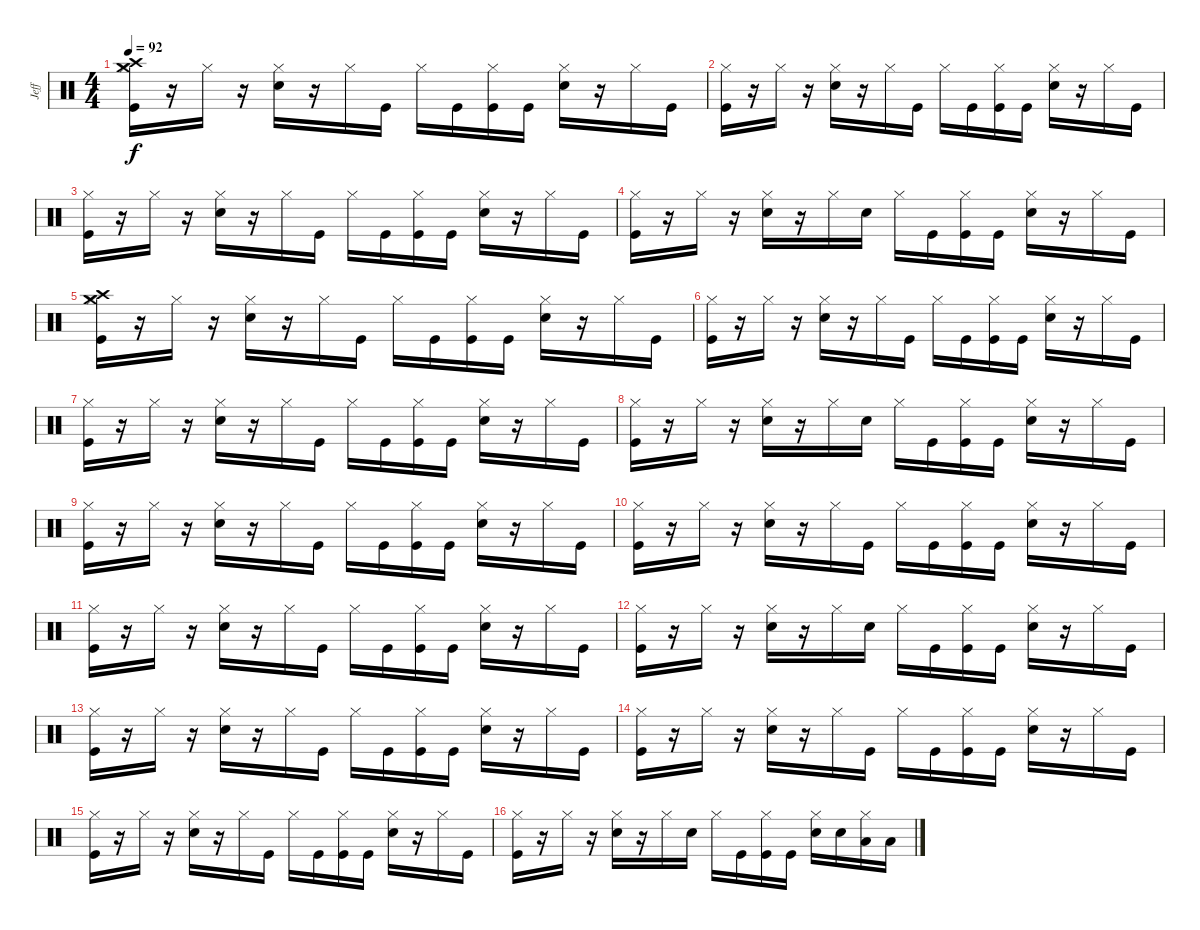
\track ("Jeff" "Jeff") {instrument percussion}
\staff {score}
\articulation defaults
\ts (4 4)
\tempo 92
\clef neutral
\ks c
("Crash medium (hit)" "Hi-Hat (closed)" "Crash high (hit)" "Kick (hit)").16{dy f} r.16 "Hi-Hat (closed)".16 r.16 ("Electric Snare (hit)" "Hi-Hat (closed)").16 r.16 "Hi-Hat (closed)".16 "Kick (hit)".16 "Hi-Hat (closed)".16 "Kick (hit)".16 ("Hi-Hat (closed)" "Kick (hit)").16 "Kick (hit)".16 ("Electric Snare (hit)" "Hi-Hat (closed)").16 r.16 "Hi-Hat (closed)".16 "Kick (hit)".16 |
("Hi-Hat (closed)" "Kick (hit)").16 r.16 "Hi-Hat (closed)".16 r.16 ("Electric Snare (hit)" "Hi-Hat (closed)").16 r.16 "Hi-Hat (closed)".16 "Kick (hit)".16 "Hi-Hat (closed)".16 "Kick (hit)".16 ("Hi-Hat (closed)" "Kick (hit)").16 "Kick (hit)".16 ("Electric Snare (hit)" "Hi-Hat (closed)").16 r.16 "Hi-Hat (closed)".16 "Kick (hit)".16 |
("Hi-Hat (closed)" "Kick (hit)").16 r.16 "Hi-Hat (closed)".16 r.16 ("Electric Snare (hit)" "Hi-Hat (closed)").16 r.16 "Hi-Hat (closed)".16 "Kick (hit)".16 "Hi-Hat (closed)".16 "Kick (hit)".16 ("Hi-Hat (closed)" "Kick (hit)").16 "Kick (hit)".16 ("Electric Snare (hit)" "Hi-Hat (closed)").16 r.16 "Hi-Hat (closed)".16 "Kick (hit)".16 |
("Hi-Hat (closed)" "Kick (hit)").16 r.16 "Hi-Hat (closed)".16 r.16 ("Electric Snare (hit)" "Hi-Hat (closed)").16 r.16 "Hi-Hat (closed)".16 "Electric Snare (hit)".16 "Hi-Hat (closed)".16 "Kick (hit)".16 ("Hi-Hat (closed)" "Kick (hit)").16 "Kick (hit)".16 ("Electric Snare (hit)" "Hi-Hat (closed)").16 r.16 "Hi-Hat (closed)".16 "Kick (hit)".16 |
("Crash high (hit)" "Crash medium (hit)" "Hi-Hat (closed)" "Kick (hit)").16 r.16 "Hi-Hat (closed)".16 r.16 ("Electric Snare (hit)" "Hi-Hat (closed)").16 r.16 "Hi-Hat (closed)".16 "Kick (hit)".16 "Hi-Hat (closed)".16 "Kick (hit)".16 ("Hi-Hat (closed)" "Kick (hit)").16 "Kick (hit)".16 ("Electric Snare (hit)" "Hi-Hat (closed)").16 r.16 "Hi-Hat (closed)".16 "Kick (hit)".16 |
("Hi-Hat (closed)" "Kick (hit)").16 r.16 "Hi-Hat (closed)".16 r.16 ("Electric Snare (hit)" "Hi-Hat (closed)").16 r.16 "Hi-Hat (closed)".16 "Kick (hit)".16 "Hi-Hat (closed)".16 "Kick (hit)".16 ("Hi-Hat (closed)" "Kick (hit)").16 "Kick (hit)".16 ("Electric Snare (hit)" "Hi-Hat (closed)").16 r.16 "Hi-Hat (closed)".16 "Kick (hit)".16 |
("Hi-Hat (closed)" "Kick (hit)").16 r.16 "Hi-Hat (closed)".16 r.16 ("Electric Snare (hit)" "Hi-Hat (closed)").16 r.16 "Hi-Hat (closed)".16 "Kick (hit)".16 "Hi-Hat (closed)".16 "Kick (hit)".16 ("Hi-Hat (closed)" "Kick (hit)").16 "Kick (hit)".16 ("Electric Snare (hit)" "Hi-Hat (closed)").16 r.16 "Hi-Hat (closed)".16 "Kick (hit)".16 |
("Hi-Hat (closed)" "Kick (hit)").16 r.16 "Hi-Hat (closed)".16 r.16 ("Electric Snare (hit)" "Hi-Hat (closed)").16 r.16 "Hi-Hat (closed)".16 "Electric Snare (hit)".16 "Hi-Hat (closed)".16 "Kick (hit)".16 ("Hi-Hat (closed)" "Kick (hit)").16 "Kick (hit)".16 ("Electric Snare (hit)" "Hi-Hat (closed)").16 r.16 "Hi-Hat (closed)".16 "Kick (hit)".16 |
("Hi-Hat (closed)" "Kick (hit)").16 r.16 "Hi-Hat (closed)".16 r.16 ("Electric Snare (hit)" "Hi-Hat (closed)").16 r.16 "Hi-Hat (closed)".16 "Kick (hit)".16 "Hi-Hat (closed)".16 "Kick (hit)".16 ("Hi-Hat (closed)" "Kick (hit)").16 "Kick (hit)".16 ("Electric Snare (hit)" "Hi-Hat (closed)").16 r.16 "Hi-Hat (closed)".16 "Kick (hit)".16 |
("Hi-Hat (closed)" "Kick (hit)").16 r.16 "Hi-Hat (closed)".16 r.16 ("Electric Snare (hit)" "Hi-Hat (closed)").16 r.16 "Hi-Hat (closed)".16 "Kick (hit)".16 "Hi-Hat (closed)".16 "Kick (hit)".16 ("Hi-Hat (closed)" "Kick (hit)").16 "Kick (hit)".16 ("Electric Snare (hit)" "Hi-Hat (closed)").16 r.16 "Hi-Hat (closed)".16 "Kick (hit)".16 |
("Hi-Hat (closed)" "Kick (hit)").16 r.16 "Hi-Hat (closed)".16 r.16 ("Electric Snare (hit)" "Hi-Hat (closed)").16 r.16 "Hi-Hat (closed)".16 "Kick (hit)".16 "Hi-Hat (closed)".16 "Kick (hit)".16 ("Hi-Hat (closed)" "Kick (hit)").16 "Kick (hit)".16 ("Electric Snare (hit)" "Hi-Hat (closed)").16 r.16 "Hi-Hat (closed)".16 "Kick (hit)".16 |
("Hi-Hat (closed)" "Kick (hit)").16 r.16 "Hi-Hat (closed)".16 r.16 ("Electric Snare (hit)" "Hi-Hat (closed)").16 r.16 "Hi-Hat (closed)".16 "Electric Snare (hit)".16 "Hi-Hat (closed)".16 "Kick (hit)".16 ("Hi-Hat (closed)" "Kick (hit)").16 "Kick (hit)".16 ("Electric Snare (hit)" "Hi-Hat (closed)").16 r.16 "Hi-Hat (closed)".16 "Kick (hit)".16 |
("Hi-Hat (closed)" "Kick (hit)").16 r.16 "Hi-Hat (closed)".16 r.16 ("Electric Snare (hit)" "Hi-Hat (closed)").16 r.16 "Hi-Hat (closed)".16 "Kick (hit)".16 "Hi-Hat (closed)".16 "Kick (hit)".16 ("Hi-Hat (closed)" "Kick (hit)").16 "Kick (hit)".16 ("Electric Snare (hit)" "Hi-Hat (closed)").16 r.16 "Hi-Hat (closed)".16 "Kick (hit)".16 |
("Hi-Hat (closed)" "Kick (hit)").16 r.16 "Hi-Hat (closed)".16 r.16 ("Electric Snare (hit)" "Hi-Hat (closed)").16 r.16 "Hi-Hat (closed)".16 "Kick (hit)".16 "Hi-Hat (closed)".16 "Kick (hit)".16 ("Hi-Hat (closed)" "Kick (hit)").16 "Kick (hit)".16 ("Electric Snare (hit)" "Hi-Hat (closed)").16 r.16 "Hi-Hat (closed)".16 "Kick (hit)".16 |
("Hi-Hat (closed)" "Kick (hit)").16 r.16 "Hi-Hat (closed)".16 r.16 ("Electric Snare (hit)" "Hi-Hat (closed)").16 r.16 "Hi-Hat (closed)".16 "Kick (hit)".16 "Hi-Hat (closed)".16 "Kick (hit)".16 ("Hi-Hat (closed)" "Kick (hit)").16 "Kick (hit)".16 ("Electric Snare (hit)" "Hi-Hat (closed)").16 r.16 "Hi-Hat (closed)".16 "Kick (hit)".16 |
("Hi-Hat (closed)" "Kick (hit)").16 r.16 "Hi-Hat (closed)".16 r.16 ("Electric Snare (hit)" "Hi-Hat (closed)").16 r.16 "Hi-Hat (closed)".16 "Electric Snare (hit)".16 "Hi-Hat (closed)".16 "Kick (hit)".16 ("Hi-Hat (closed)" "Kick (hit)").16 "Kick (hit)".16 ("Electric Snare (hit)" "Hi-Hat (closed)").16 "Electric Snare (hit)".16 ("Low Tom (hit)" "Hi-Hat (closed)").16 "Low Tom (hit)".16
